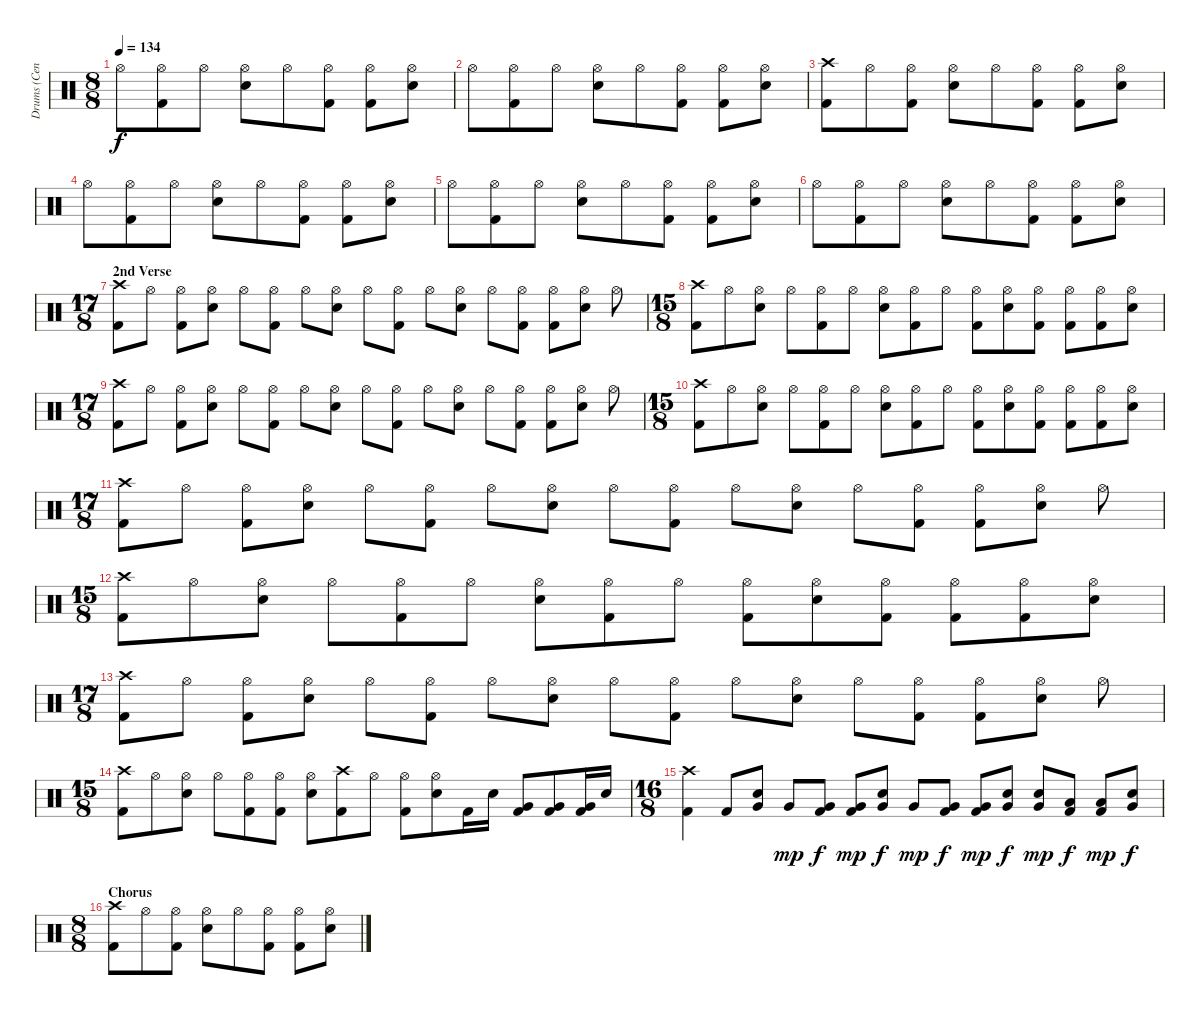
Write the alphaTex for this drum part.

\track ("Drums (Cenk)" "Drums (Cen") {instrument percussion}
\staff {score}
\articulation defaults
\ts (8 8)
\tempo 134
\clef neutral
\ks c "Hi-Hat (open)".8{dy f}
("Hi-Hat (open)" "Kick (hit) 2").8 "Hi-Hat (open)".8 ("Hi-Hat (open)" "Snare (hit) 2").8 "Hi-Hat (open)".8 ("Hi-Hat (open)" "Kick (hit) 2").8 ("Hi-Hat (open)" "Kick (hit) 2").8 ("Hi-Hat (open)" "Snare (hit) 2").8 |
"Hi-Hat (open)".8 ("Hi-Hat (open)" "Kick (hit) 2").8 "Hi-Hat (open)".8 ("Hi-Hat (open)" "Snare (hit) 2").8 "Hi-Hat (open)".8 ("Hi-Hat (open)" "Kick (hit) 2").8 ("Hi-Hat (open)" "Kick (hit) 2").8 ("Hi-Hat (open)" "Snare (hit) 2").8 |
("Crash high (hit)" "Kick (hit) 2").8 "Hi-Hat (open)".8 ("Hi-Hat (open)" "Kick (hit) 2").8 ("Hi-Hat (open)" "Snare (hit) 2").8 "Hi-Hat (open)".8 ("Hi-Hat (open)" "Kick (hit) 2").8 ("Hi-Hat (open)" "Kick (hit) 2").8 ("Hi-Hat (open)" "Snare (hit) 2").8 |
"Hi-Hat (open)".8 ("Hi-Hat (open)" "Kick (hit) 2").8 "Hi-Hat (open)".8 ("Hi-Hat (open)" "Snare (hit) 2").8 "Hi-Hat (open)".8 ("Hi-Hat (open)" "Kick (hit) 2").8 ("Hi-Hat (open)" "Kick (hit) 2").8 ("Hi-Hat (open)" "Snare (hit) 2").8 |
"Hi-Hat (open)".8 ("Hi-Hat (open)" "Kick (hit) 2").8 "Hi-Hat (open)".8 ("Hi-Hat (open)" "Snare (hit) 2").8 "Hi-Hat (open)".8 ("Hi-Hat (open)" "Kick (hit) 2").8 ("Hi-Hat (open)" "Kick (hit) 2").8 ("Hi-Hat (open)" "Snare (hit) 2").8 |
"Hi-Hat (open)".8 ("Hi-Hat (open)" "Kick (hit) 2").8 "Hi-Hat (open)".8 ("Hi-Hat (open)" "Snare (hit) 2").8 "Hi-Hat (open)".8 ("Hi-Hat (open)" "Kick (hit) 2").8 ("Hi-Hat (open)" "Kick (hit) 2").8 ("Hi-Hat (open)" "Snare (hit) 2").8 |
\ts (17 8)
\section ("" "2nd Verse")
("Crash high (hit)" "Kick (hit) 2").8 "Hi-Hat (open)".8 ("Hi-Hat (open)" "Kick (hit) 2").8 ("Hi-Hat (open)" "Snare (hit) 2").8 "Hi-Hat (open)".8 ("Hi-Hat (open)" "Kick (hit) 2").8 "Hi-Hat (open)".8 ("Hi-Hat (open)" "Snare (hit) 2").8 "Hi-Hat (open)".8 ("Hi-Hat (open)" "Kick (hit) 2").8 "Hi-Hat (open)".8 ("Hi-Hat (open)" "Snare (hit) 2").8 "Hi-Hat (open)".8 ("Hi-Hat (open)" "Kick (hit) 2").8 ("Hi-Hat (open)" "Kick (hit) 2").8 ("Hi-Hat (open)" "Snare (hit) 2").8 "Hi-Hat (open)".8 |
\ts (15 8)
("Crash high (hit)" "Kick (hit) 2").8 "Hi-Hat (open)".8 ("Hi-Hat (open)" "Snare (hit) 2").8 "Hi-Hat (open)".8 ("Hi-Hat (open)" "Kick (hit) 2").8 "Hi-Hat (open)".8 ("Hi-Hat (open)" "Snare (hit) 2").8 ("Hi-Hat (open)" "Kick (hit) 2").8 "Hi-Hat (open)".8 ("Hi-Hat (open)" "Kick (hit) 2").8 ("Hi-Hat (open)" "Snare (hit) 2").8 ("Hi-Hat (open)" "Kick (hit) 2").8 ("Hi-Hat (open)" "Kick (hit) 2").8 ("Hi-Hat (open)" "Kick (hit) 2").8 ("Hi-Hat (open)" "Snare (hit) 2").8 |
\ts (17 8)
("Crash high (hit)" "Kick (hit) 2").8 "Hi-Hat (open)".8 ("Hi-Hat (open)" "Kick (hit) 2").8 ("Hi-Hat (open)" "Snare (hit) 2").8 "Hi-Hat (open)".8 ("Hi-Hat (open)" "Kick (hit) 2").8 "Hi-Hat (open)".8 ("Hi-Hat (open)" "Snare (hit) 2").8 "Hi-Hat (open)".8 ("Hi-Hat (open)" "Kick (hit) 2").8 "Hi-Hat (open)".8 ("Hi-Hat (open)" "Snare (hit) 2").8 "Hi-Hat (open)".8 ("Hi-Hat (open)" "Kick (hit) 2").8 ("Hi-Hat (open)" "Kick (hit) 2").8 ("Hi-Hat (open)" "Snare (hit) 2").8 "Hi-Hat (open)".8 |
\ts (15 8)
("Crash high (hit)" "Kick (hit) 2").8 "Hi-Hat (open)".8 ("Hi-Hat (open)" "Snare (hit) 2").8 "Hi-Hat (open)".8 ("Hi-Hat (open)" "Kick (hit) 2").8 "Hi-Hat (open)".8 ("Hi-Hat (open)" "Snare (hit) 2").8 ("Hi-Hat (open)" "Kick (hit) 2").8 "Hi-Hat (open)".8 ("Hi-Hat (open)" "Kick (hit) 2").8 ("Hi-Hat (open)" "Snare (hit) 2").8 ("Hi-Hat (open)" "Kick (hit) 2").8 ("Hi-Hat (open)" "Kick (hit) 2").8 ("Hi-Hat (open)" "Kick (hit) 2").8 ("Hi-Hat (open)" "Snare (hit) 2").8 |
\ts (17 8)
("Crash high (hit)" "Kick (hit) 2").8 "Hi-Hat (open)".8 ("Hi-Hat (open)" "Kick (hit) 2").8 ("Hi-Hat (open)" "Snare (hit) 2").8 "Hi-Hat (open)".8 ("Hi-Hat (open)" "Kick (hit) 2").8 "Hi-Hat (open)".8 ("Hi-Hat (open)" "Snare (hit) 2").8 "Hi-Hat (open)".8 ("Hi-Hat (open)" "Kick (hit) 2").8 "Hi-Hat (open)".8 ("Hi-Hat (open)" "Snare (hit) 2").8 "Hi-Hat (open)".8 ("Hi-Hat (open)" "Kick (hit) 2").8 ("Hi-Hat (open)" "Kick (hit) 2").8 ("Hi-Hat (open)" "Snare (hit) 2").8 "Hi-Hat (open)".8 |
\ts (15 8)
("Crash high (hit)" "Kick (hit) 2").8 "Hi-Hat (open)".8 ("Hi-Hat (open)" "Snare (hit) 2").8 "Hi-Hat (open)".8 ("Hi-Hat (open)" "Kick (hit) 2").8 "Hi-Hat (open)".8 ("Hi-Hat (open)" "Snare (hit) 2").8 ("Hi-Hat (open)" "Kick (hit) 2").8 "Hi-Hat (open)".8 ("Hi-Hat (open)" "Kick (hit) 2").8 ("Hi-Hat (open)" "Snare (hit) 2").8 ("Hi-Hat (open)" "Kick (hit) 2").8 ("Hi-Hat (open)" "Kick (hit) 2").8 ("Hi-Hat (open)" "Kick (hit) 2").8 ("Hi-Hat (open)" "Snare (hit) 2").8 |
\ts (17 8)
("Crash high (hit)" "Kick (hit) 2").8 "Hi-Hat (open)".8 ("Hi-Hat (open)" "Kick (hit) 2").8 ("Hi-Hat (open)" "Snare (hit) 2").8 "Hi-Hat (open)".8 ("Hi-Hat (open)" "Kick (hit) 2").8 "Hi-Hat (open)".8 ("Hi-Hat (open)" "Snare (hit) 2").8 "Hi-Hat (open)".8 ("Hi-Hat (open)" "Kick (hit) 2").8 "Hi-Hat (open)".8 ("Hi-Hat (open)" "Snare (hit) 2").8 "Hi-Hat (open)".8 ("Hi-Hat (open)" "Kick (hit) 2").8 ("Hi-Hat (open)" "Kick (hit) 2").8 ("Hi-Hat (open)" "Snare (hit) 2").8 "Hi-Hat (open)".8 |
\ts (15 8)
("Crash high (hit)" "Kick (hit) 2").8 "Hi-Hat (open)".8 ("Hi-Hat (open)" "Snare (hit) 2").8 "Hi-Hat (open)".8 ("Hi-Hat (open)" "Kick (hit) 2").8 ("Hi-Hat (open)" "Kick (hit) 2").8 ("Hi-Hat (open)" "Snare (hit) 2").8 ("Crash high (hit)" "Kick (hit) 2").8 "Hi-Hat (open)".8 ("Hi-Hat (open)" "Kick (hit) 2").8 ("Hi-Hat (open)" "Snare (hit) 2").8 "Kick (hit) 2".16 "Snare (hit) 2".16 ("Very Low Tom (hit)" "Kick (hit) 2").8 ("Very Low Tom (hit)" "Kick (hit) 2").8 ("Very Low Tom (hit)" "Kick (hit) 2").16 "Snare (hit) 2".16 |
\ts (16 8)
("Crash high (hit)" "Kick (hit) 2").4 "Kick (hit) 2".8 ("Very Low Tom (hit)" "Snare (hit) 2").8 "Very Low Tom (hit)".8{dy mp} ("Very Low Tom (hit)" "Kick (hit) 2").8{dy f} ("Very Low Tom (hit)" "Kick (hit) 2").8{dy mp} ("Very Low Tom (hit)" "Snare (hit) 2").8{dy f} "Very Low Tom (hit)".8{dy mp} ("Very Low Tom (hit)" "Kick (hit) 2").8{dy f} ("Very Low Tom (hit)" "Kick (hit) 2").8{dy mp} ("Very Low Tom (hit)" "Snare (hit) 2").8{dy f} ("Very Low Tom (hit)" "Snare (hit) 2").8{dy mp} ("Low Tom (hit)" "Kick (hit) 2").8{dy f} ("Low Tom (hit)" "Kick (hit) 2").8{dy mp} ("Very Low Tom (hit)" "Snare (hit) 2").8{dy f} |
\ts (8 8)
\section ("" "Chorus")
("Crash high (hit)" "Kick (hit) 2").8 "Hi-Hat (open)".8 ("Hi-Hat (open)" "Kick (hit) 2").8 ("Hi-Hat (open)" "Snare (hit) 2").8 "Hi-Hat (open)".8 ("Hi-Hat (open)" "Kick (hit) 2").8 ("Hi-Hat (open)" "Kick (hit) 2").8 ("Hi-Hat (open)" "Snare (hit) 2").8
